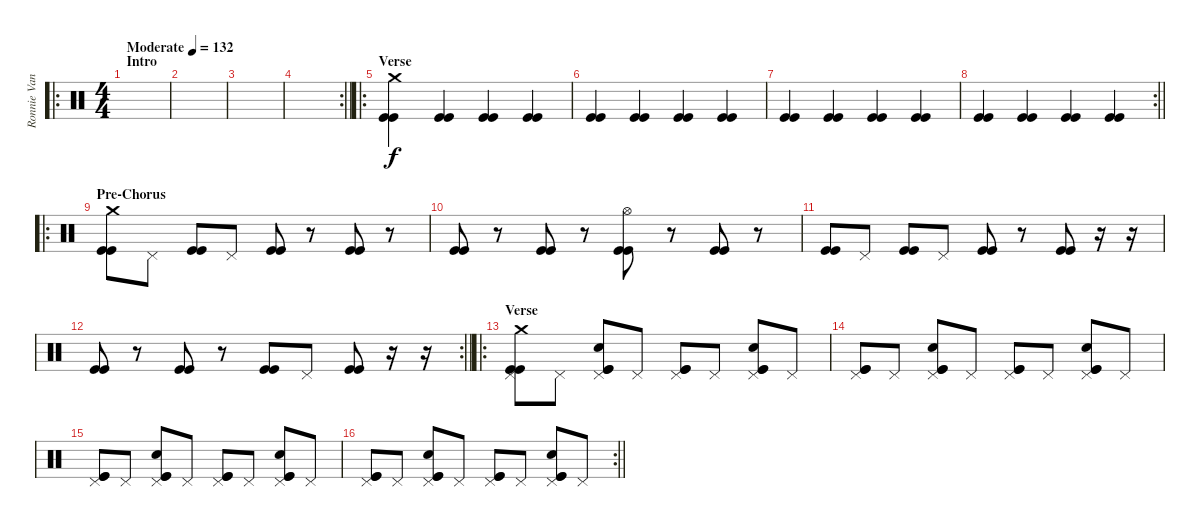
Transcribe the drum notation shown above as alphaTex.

\track ("Ronnie Vanucci" "Ronnie Van") {instrument percussion}
\staff {score}
\articulation defaults
\ro
\ts (4 4)
\section ("" "Intro")
\tempo (132 "Moderate")
\clef neutral
\ks c
|
|
|
\rc 2
\barLineRight lightlight
|
\ro
\section ("" "Verse")
("Crash medium (hit)" "Kick (hit)" "Kick (hit)").4 ("Kick (hit)" "Kick (hit)").4 ("Kick (hit)" "Kick (hit)").4 ("Kick (hit)" "Kick (hit)").4 |
("Kick (hit)" "Kick (hit)").4 ("Kick (hit)" "Kick (hit)").4 ("Kick (hit)" "Kick (hit)").4 ("Kick (hit)" "Kick (hit)").4 |
("Kick (hit)" "Kick (hit)").4 ("Kick (hit)" "Kick (hit)").4 ("Kick (hit)" "Kick (hit)").4 ("Kick (hit)" "Kick (hit)").4 |
\rc 2
\barLineRight lightlight
("Kick (hit)" "Kick (hit)").4 ("Kick (hit)" "Kick (hit)").4 ("Kick (hit)" "Kick (hit)").4 ("Kick (hit)" "Kick (hit)").4 |
\ro
\section ("" "Pre-Chorus")
("Crash medium (hit)" "Kick (hit)" "Kick (hit)").8 "Pedal Hi-Hat (hit)".8 ("Kick (hit)" "Kick (hit)").8 "Pedal Hi-Hat (hit)".8 ("Kick (hit)" "Kick (hit)").8 r.8 ("Kick (hit)" "Kick (hit)").8 r.8 |
("Kick (hit)" "Kick (hit)").8 r.8 ("Kick (hit)" "Kick (hit)").8 r.8 ("Hi-Hat (open)" "Kick (hit)" "Kick (hit)").8 r.8 ("Kick (hit)" "Kick (hit)").8 r.8 |
("Kick (hit)" "Kick (hit)").8 "Pedal Hi-Hat (hit)".8 ("Kick (hit)" "Kick (hit)").8 "Pedal Hi-Hat (hit)".8 ("Kick (hit)" "Kick (hit)").8 r.8 ("Kick (hit)" "Kick (hit)").8 r.16 r.16 |
\rc 2
\barLineRight lightlight
("Kick (hit)" "Kick (hit)").8 r.8 ("Kick (hit)" "Kick (hit)").8 r.8 ("Kick (hit)" "Kick (hit)").8 "Pedal Hi-Hat (hit)".8 ("Kick (hit)" "Kick (hit)").8 r.16 r.16 |
\ro
\section ("" "Verse")
("Pedal Hi-Hat (hit)" "Crash medium (hit)" "Kick (hit)" "Kick (hit)").8 "Pedal Hi-Hat (hit)".8 ("Pedal Hi-Hat (hit)" "Electric Snare (hit)" "Kick (hit)" "Kick (hit)").8 "Pedal Hi-Hat (hit)".8 ("Pedal Hi-Hat (hit)" "Kick (hit)" "Kick (hit)").8 "Pedal Hi-Hat (hit)".8 ("Pedal Hi-Hat (hit)" "Electric Snare (hit)" "Kick (hit)" "Kick (hit)").8 "Pedal Hi-Hat (hit)".8 |
("Pedal Hi-Hat (hit)" "Kick (hit)" "Kick (hit)").8 "Pedal Hi-Hat (hit)".8 ("Pedal Hi-Hat (hit)" "Electric Snare (hit)" "Kick (hit)" "Kick (hit)").8 "Pedal Hi-Hat (hit)".8 ("Pedal Hi-Hat (hit)" "Kick (hit)" "Kick (hit)").8 "Pedal Hi-Hat (hit)".8 ("Pedal Hi-Hat (hit)" "Electric Snare (hit)" "Kick (hit)" "Kick (hit)").8 "Pedal Hi-Hat (hit)".8 |
("Pedal Hi-Hat (hit)" "Kick (hit)" "Kick (hit)").8 "Pedal Hi-Hat (hit)".8 ("Pedal Hi-Hat (hit)" "Electric Snare (hit)" "Kick (hit)" "Kick (hit)").8 "Pedal Hi-Hat (hit)".8 ("Pedal Hi-Hat (hit)" "Kick (hit)" "Kick (hit)").8 "Pedal Hi-Hat (hit)".8 ("Pedal Hi-Hat (hit)" "Electric Snare (hit)" "Kick (hit)" "Kick (hit)").8 "Pedal Hi-Hat (hit)".8 |
\rc 2
\barLineRight lightlight
("Pedal Hi-Hat (hit)" "Kick (hit)" "Kick (hit)").8 "Pedal Hi-Hat (hit)".8 ("Pedal Hi-Hat (hit)" "Electric Snare (hit)" "Kick (hit)" "Kick (hit)").8 "Pedal Hi-Hat (hit)".8 ("Pedal Hi-Hat (hit)" "Kick (hit)" "Kick (hit)").8 "Pedal Hi-Hat (hit)".8 ("Pedal Hi-Hat (hit)" "Electric Snare (hit)" "Kick (hit)" "Kick (hit)").8 "Pedal Hi-Hat (hit)".8
